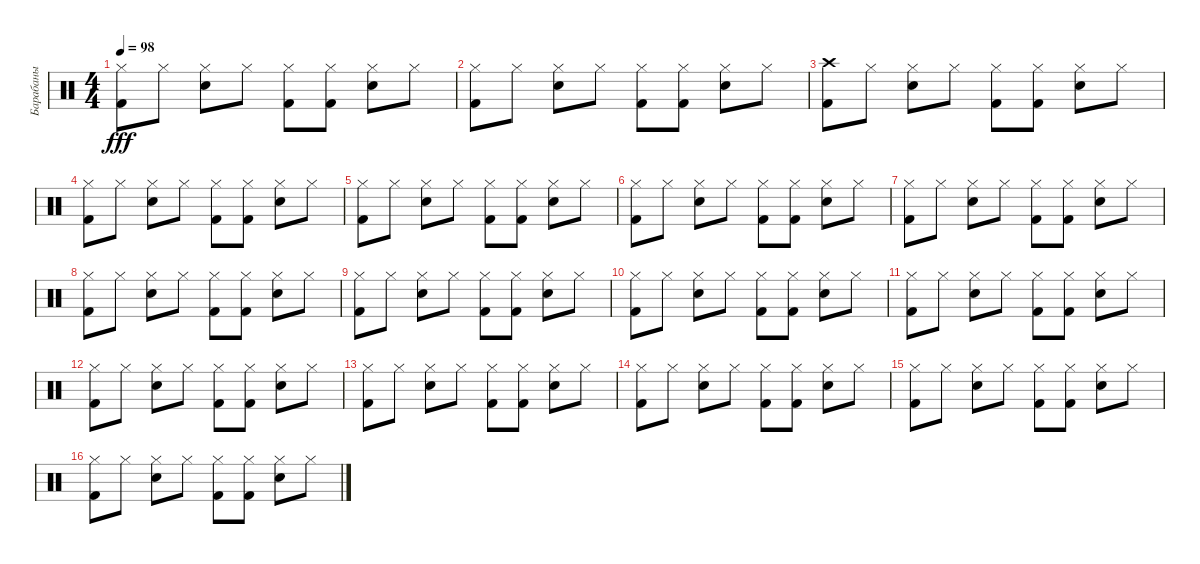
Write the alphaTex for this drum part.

\track ("Барабаны" "Барабаны") {instrument percussion}
\staff {score}
\articulation defaults
\ts (4 4)
\tempo 98
\clef neutral
\ks c
("Hi-Hat (closed)" "Kick (hit) 2").8{dy fff} "Hi-Hat (closed)".8 ("Hi-Hat (closed)" "Snare (hit) 2").8 "Hi-Hat (closed)".8 ("Hi-Hat (closed)" "Kick (hit) 2").8 ("Hi-Hat (closed)" "Kick (hit) 2").8 ("Hi-Hat (closed)" "Snare (hit) 2").8 "Hi-Hat (closed)".8 |
("Hi-Hat (closed)" "Kick (hit) 2").8 "Hi-Hat (closed)".8 ("Hi-Hat (closed)" "Snare (hit) 2").8 "Hi-Hat (closed)".8 ("Hi-Hat (closed)" "Kick (hit) 2").8 ("Hi-Hat (closed)" "Kick (hit) 2").8 ("Hi-Hat (closed)" "Snare (hit) 2").8 "Hi-Hat (closed)".8 |
("Crash high (hit)" "Kick (hit) 2").8 "Hi-Hat (closed)".8 ("Hi-Hat (closed)" "Snare (hit) 2").8 "Hi-Hat (closed)".8 ("Hi-Hat (closed)" "Kick (hit) 2").8 ("Hi-Hat (closed)" "Kick (hit) 2").8 ("Hi-Hat (closed)" "Snare (hit) 2").8 "Hi-Hat (closed)".8 |
("Hi-Hat (closed)" "Kick (hit) 2").8 "Hi-Hat (closed)".8 ("Hi-Hat (closed)" "Snare (hit) 2").8 "Hi-Hat (closed)".8 ("Hi-Hat (closed)" "Kick (hit) 2").8 ("Hi-Hat (closed)" "Kick (hit) 2").8 ("Hi-Hat (closed)" "Snare (hit) 2").8 "Hi-Hat (closed)".8 |
("Hi-Hat (closed)" "Kick (hit) 2").8 "Hi-Hat (closed)".8 ("Hi-Hat (closed)" "Snare (hit) 2").8 "Hi-Hat (closed)".8 ("Hi-Hat (closed)" "Kick (hit) 2").8 ("Hi-Hat (closed)" "Kick (hit) 2").8 ("Hi-Hat (closed)" "Snare (hit) 2").8 "Hi-Hat (closed)".8 |
("Hi-Hat (closed)" "Kick (hit) 2").8 "Hi-Hat (closed)".8 ("Hi-Hat (closed)" "Snare (hit) 2").8 "Hi-Hat (closed)".8 ("Hi-Hat (closed)" "Kick (hit) 2").8 ("Hi-Hat (closed)" "Kick (hit) 2").8 ("Hi-Hat (closed)" "Snare (hit) 2").8 "Hi-Hat (closed)".8 |
("Hi-Hat (closed)" "Kick (hit) 2").8 "Hi-Hat (closed)".8 ("Hi-Hat (closed)" "Snare (hit) 2").8 "Hi-Hat (closed)".8 ("Hi-Hat (closed)" "Kick (hit) 2").8 ("Hi-Hat (closed)" "Kick (hit) 2").8 ("Hi-Hat (closed)" "Snare (hit) 2").8 "Hi-Hat (closed)".8 |
("Hi-Hat (closed)" "Kick (hit) 2").8 "Hi-Hat (closed)".8 ("Hi-Hat (closed)" "Snare (hit) 2").8 "Hi-Hat (closed)".8 ("Hi-Hat (closed)" "Kick (hit) 2").8 ("Hi-Hat (closed)" "Kick (hit) 2").8 ("Hi-Hat (closed)" "Snare (hit) 2").8 "Hi-Hat (closed)".8 |
("Hi-Hat (closed)" "Kick (hit) 2").8 "Hi-Hat (closed)".8 ("Hi-Hat (closed)" "Snare (hit) 2").8 "Hi-Hat (closed)".8 ("Hi-Hat (closed)" "Kick (hit) 2").8 ("Hi-Hat (closed)" "Kick (hit) 2").8 ("Hi-Hat (closed)" "Snare (hit) 2").8 "Hi-Hat (closed)".8 |
("Hi-Hat (closed)" "Kick (hit) 2").8 "Hi-Hat (closed)".8 ("Hi-Hat (closed)" "Snare (hit) 2").8 "Hi-Hat (closed)".8 ("Hi-Hat (closed)" "Kick (hit) 2").8 ("Hi-Hat (closed)" "Kick (hit) 2").8 ("Hi-Hat (closed)" "Snare (hit) 2").8 "Hi-Hat (closed)".8 |
("Hi-Hat (closed)" "Kick (hit) 2").8 "Hi-Hat (closed)".8 ("Hi-Hat (closed)" "Snare (hit) 2").8 "Hi-Hat (closed)".8 ("Hi-Hat (closed)" "Kick (hit) 2").8 ("Hi-Hat (closed)" "Kick (hit) 2").8 ("Hi-Hat (closed)" "Snare (hit) 2").8 "Hi-Hat (closed)".8 |
("Hi-Hat (closed)" "Kick (hit) 2").8 "Hi-Hat (closed)".8 ("Hi-Hat (closed)" "Snare (hit) 2").8 "Hi-Hat (closed)".8 ("Hi-Hat (closed)" "Kick (hit) 2").8 ("Hi-Hat (closed)" "Kick (hit) 2").8 ("Hi-Hat (closed)" "Snare (hit) 2").8 "Hi-Hat (closed)".8 |
("Hi-Hat (closed)" "Kick (hit) 2").8 "Hi-Hat (closed)".8 ("Hi-Hat (closed)" "Snare (hit) 2").8 "Hi-Hat (closed)".8 ("Hi-Hat (closed)" "Kick (hit) 2").8 ("Hi-Hat (closed)" "Kick (hit) 2").8 ("Hi-Hat (closed)" "Snare (hit) 2").8 "Hi-Hat (closed)".8 |
("Hi-Hat (closed)" "Kick (hit) 2").8 "Hi-Hat (closed)".8 ("Hi-Hat (closed)" "Snare (hit) 2").8 "Hi-Hat (closed)".8 ("Hi-Hat (closed)" "Kick (hit) 2").8 ("Hi-Hat (closed)" "Kick (hit) 2").8 ("Hi-Hat (closed)" "Snare (hit) 2").8 "Hi-Hat (closed)".8 |
("Hi-Hat (closed)" "Kick (hit) 2").8 "Hi-Hat (closed)".8 ("Hi-Hat (closed)" "Snare (hit) 2").8 "Hi-Hat (closed)".8 ("Hi-Hat (closed)" "Kick (hit) 2").8 ("Hi-Hat (closed)" "Kick (hit) 2").8 ("Hi-Hat (closed)" "Snare (hit) 2").8 "Hi-Hat (closed)".8 |
("Hi-Hat (closed)" "Kick (hit) 2").8 "Hi-Hat (closed)".8 ("Hi-Hat (closed)" "Snare (hit) 2").8 "Hi-Hat (closed)".8 ("Hi-Hat (closed)" "Kick (hit) 2").8 ("Hi-Hat (closed)" "Kick (hit) 2").8 ("Hi-Hat (closed)" "Snare (hit) 2").8 "Hi-Hat (closed)".8
